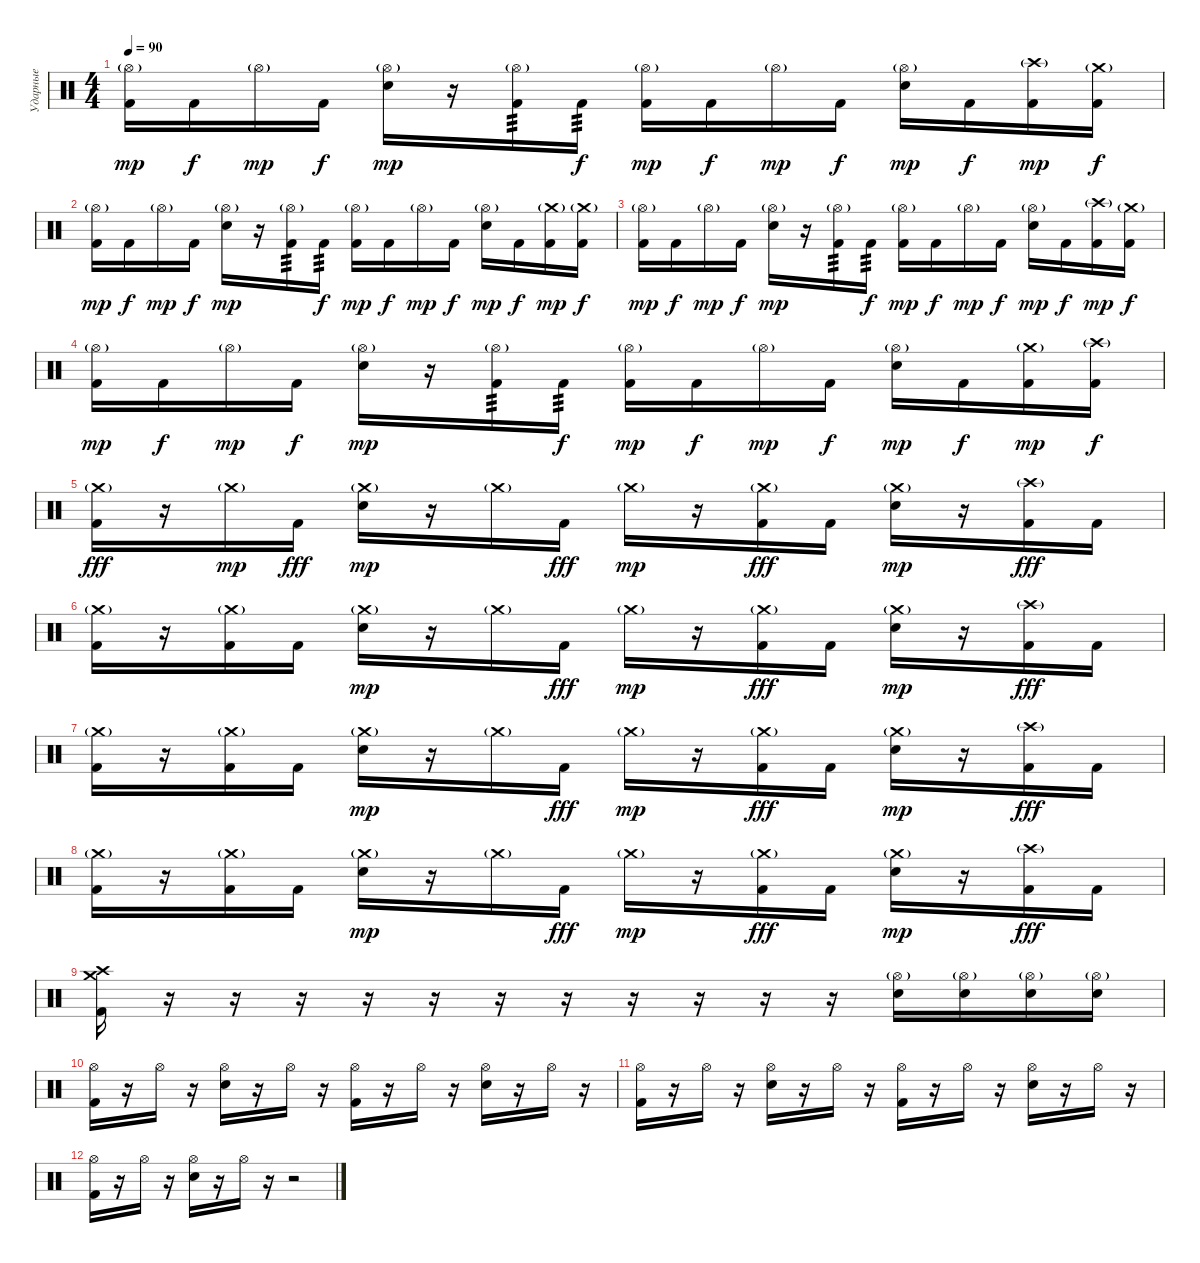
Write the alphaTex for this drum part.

\track ("Ударные" "Ударные") {instrument percussion}
\staff {score}
\articulation defaults
\ts (4 4)
\tempo 90
\clef neutral
\ks c
("Hi-Hat (open)"{g} "Kick (hit) 2").16{dy mp} "Kick (hit) 2".16{dy f} "Hi-Hat (open)"{g}.16{dy mp} "Kick (hit) 2".16{dy f} ("Hi-Hat (open)"{g} "Electric Snare (hit)").16{dy mp} r.16 ("Hi-Hat (open)"{g} "Kick (hit) 2").16{tp 3} "Kick (hit) 2".16{tp 3 dy f} ("Hi-Hat (open)"{g} "Kick (hit) 2").16{dy mp} "Kick (hit) 2".16{dy f} "Hi-Hat (open)"{g}.16{dy mp} "Kick (hit) 2".16{dy f} ("Hi-Hat (open)"{g} "Electric Snare (hit)").16{dy mp} "Kick (hit) 2".16{dy f} ("Crash high (hit)"{g} "Kick (hit) 2").16{dy mp} ("Crash medium (hit)"{g} "Kick (hit) 2").16{dy f} |
("Hi-Hat (open)"{g} "Kick (hit) 2").16{dy mp} "Kick (hit) 2".16{dy f} "Hi-Hat (open)"{g}.16{dy mp} "Kick (hit) 2".16{dy f} ("Hi-Hat (open)"{g} "Electric Snare (hit)").16{dy mp} r.16 ("Hi-Hat (open)"{g} "Kick (hit) 2").16{tp 3} "Kick (hit) 2".16{tp 3 dy f} ("Hi-Hat (open)"{g} "Kick (hit) 2").16{dy mp} "Kick (hit) 2".16{dy f} "Hi-Hat (open)"{g}.16{dy mp} "Kick (hit) 2".16{dy f} ("Hi-Hat (open)"{g} "Electric Snare (hit)").16{dy mp} "Kick (hit) 2".16{dy f} ("Crash medium (hit)"{g} "Kick (hit) 2").16{dy mp} ("Crash medium (hit)"{g} "Kick (hit) 2").16{dy f} |
("Hi-Hat (open)"{g} "Kick (hit) 2").16{dy mp} "Kick (hit) 2".16{dy f} "Hi-Hat (open)"{g}.16{dy mp} "Kick (hit) 2".16{dy f} ("Hi-Hat (open)"{g} "Electric Snare (hit)").16{dy mp} r.16 ("Hi-Hat (open)"{g} "Kick (hit) 2").16{tp 3} "Kick (hit) 2".16{tp 3 dy f} ("Hi-Hat (open)"{g} "Kick (hit) 2").16{dy mp} "Kick (hit) 2".16{dy f} "Hi-Hat (open)"{g}.16{dy mp} "Kick (hit) 2".16{dy f} ("Hi-Hat (open)"{g} "Electric Snare (hit)").16{dy mp} "Kick (hit) 2".16{dy f} ("Crash high (hit)"{g} "Kick (hit) 2").16{dy mp} ("Crash medium (hit)"{g} "Kick (hit) 2").16{dy f} |
("Hi-Hat (open)"{g} "Kick (hit) 2").16{dy mp} "Kick (hit) 2".16{dy f} "Hi-Hat (open)"{g}.16{dy mp} "Kick (hit) 2".16{dy f} ("Hi-Hat (open)"{g} "Electric Snare (hit)").16{dy mp} r.16 ("Hi-Hat (open)"{g} "Kick (hit) 2").16{tp 3} "Kick (hit) 2".16{tp 3 dy f} ("Hi-Hat (open)"{g} "Kick (hit) 2").16{dy mp} "Kick (hit) 2".16{dy f} "Hi-Hat (open)"{g}.16{dy mp} "Kick (hit) 2".16{dy f} ("Hi-Hat (open)"{g} "Electric Snare (hit)").16{dy mp} "Kick (hit) 2".16{dy f} ("Crash medium (hit)"{g} "Kick (hit) 2").16{dy mp} ("Crash high (hit)"{g} "Kick (hit) 2").16{dy f} |
("Crash medium (hit)"{g} "Kick (hit) 2").16{dy fff} r.16 "Crash medium (hit)"{g}.16{dy mp} "Kick (hit) 2".16{dy fff} ("Crash medium (hit)"{g} "Electric Snare (hit)").16{dy mp} r.16 "Crash medium (hit)"{g}.16 "Kick (hit) 2".16{dy fff} "Crash medium (hit)"{g}.16{dy mp} r.16 ("Crash medium (hit)"{g} "Kick (hit) 2").16{dy fff} "Kick (hit) 2".16 ("Crash medium (hit)"{g} "Electric Snare (hit)").16{dy mp} r.16 ("Crash high (hit)"{g} "Kick (hit) 2").16{dy fff} "Kick (hit) 2".16 |
("Crash medium (hit)"{g} "Kick (hit) 2").16 r.16 ("Crash medium (hit)"{g} "Kick (hit) 2").16 "Kick (hit) 2".16 ("Crash medium (hit)"{g} "Electric Snare (hit)").16{dy mp} r.16 "Crash medium (hit)"{g}.16 "Kick (hit) 2".16{dy fff} "Crash medium (hit)"{g}.16{dy mp} r.16 ("Crash medium (hit)"{g} "Kick (hit) 2").16{dy fff} "Kick (hit) 2".16 ("Crash medium (hit)"{g} "Electric Snare (hit)").16{dy mp} r.16 ("Crash high (hit)"{g} "Kick (hit) 2").16{dy fff} "Kick (hit) 2".16 |
("Crash medium (hit)"{g} "Kick (hit) 2").16 r.16 ("Crash medium (hit)"{g} "Kick (hit) 2").16 "Kick (hit) 2".16 ("Crash medium (hit)"{g} "Electric Snare (hit)").16{dy mp} r.16 "Crash medium (hit)"{g}.16 "Kick (hit) 2".16{dy fff} "Crash medium (hit)"{g}.16{dy mp} r.16 ("Crash medium (hit)"{g} "Kick (hit) 2").16{dy fff} "Kick (hit) 2".16 ("Crash medium (hit)"{g} "Electric Snare (hit)").16{dy mp} r.16 ("Crash high (hit)"{g} "Kick (hit) 2").16{dy fff} "Kick (hit) 2".16 |
("Crash medium (hit)"{g} "Kick (hit) 2").16 r.16 ("Crash medium (hit)"{g} "Kick (hit) 2").16 "Kick (hit) 2".16 ("Crash medium (hit)"{g} "Electric Snare (hit)").16{dy mp} r.16 "Crash medium (hit)"{g}.16 "Kick (hit) 2".16{dy fff} "Crash medium (hit)"{g}.16{dy mp} r.16 ("Crash medium (hit)"{g} "Kick (hit) 2").16{dy fff} "Kick (hit) 2".16 ("Crash medium (hit)"{g} "Electric Snare (hit)").16{dy mp} r.16 ("Crash high (hit)"{g} "Kick (hit) 2").16{dy fff} "Kick (hit) 2".16 |
("Crash medium (hit)" "Crash high (hit)" "Kick (hit) 2").16 r.16 r.16 r.16 r.16 r.16 r.16 r.16 r.16 r.16 r.16 r.16 ("Hi-Hat (open)"{g} "Electric Snare (hit)").16 ("Hi-Hat (open)"{g} "Electric Snare (hit)").16 ("Hi-Hat (open)"{g} "Electric Snare (hit)").16 ("Hi-Hat (open)"{g} "Electric Snare (hit)").16 |
("Hi-Hat (open)" "Kick (hit) 2").16 r.16 "Hi-Hat (open)".16 r.16 ("Hi-Hat (open)" "Electric Snare (hit)").16 r.16 "Hi-Hat (open)".16 r.16 ("Hi-Hat (open)" "Kick (hit) 2").16 r.16 "Hi-Hat (open)".16 r.16 ("Hi-Hat (open)" "Electric Snare (hit)").16 r.16 "Hi-Hat (open)".16 r.16 |
("Hi-Hat (open)" "Kick (hit) 2").16{volume 0} r.16 "Hi-Hat (open)".16 r.16 ("Hi-Hat (open)" "Electric Snare (hit)").16 r.16 "Hi-Hat (open)".16 r.16 ("Hi-Hat (open)" "Kick (hit) 2").16 r.16 "Hi-Hat (open)".16 r.16 ("Hi-Hat (open)" "Electric Snare (hit)").16 r.16 "Hi-Hat (open)".16 r.16 |
("Hi-Hat (open)" "Kick (hit) 2").16 r.16 "Hi-Hat (open)".16 r.16 ("Hi-Hat (open)" "Electric Snare (hit)").16 r.16 "Hi-Hat (open)".16 r.16 r.2
